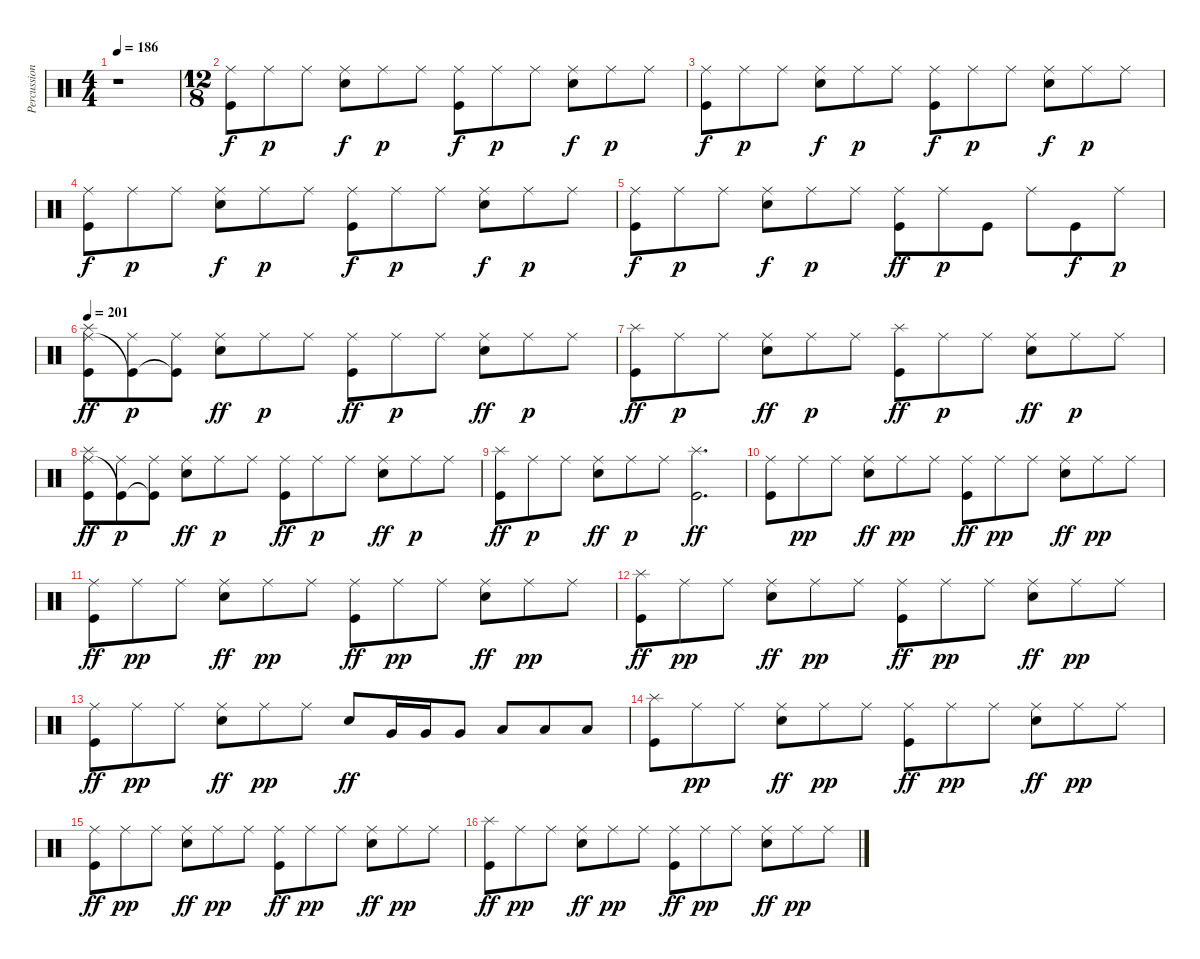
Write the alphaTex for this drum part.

\track ("Percussion" "Percussion") {instrument percussion}
\staff {score}
\articulation defaults
\ts (4 4)
\tempo 186
\clef neutral
\ks c
r.1{dy f} |
\ts (12 8)
("Ride (middle)" "Kick (hit)").8 "Ride (middle)".8{dy p} "Ride (middle)".8 ("Ride (middle)" "Snare (hit) 2").8{dy f} "Ride (middle)".8{dy p} "Ride (middle)".8 ("Ride (middle)" "Kick (hit)").8{dy f} "Ride (middle)".8{dy p} "Ride (middle)".8 ("Ride (middle)" "Snare (hit) 2").8{dy f} "Ride (middle)".8{dy p} "Ride (middle)".8 |
("Ride (middle)" "Kick (hit)").8{dy f} "Ride (middle)".8{dy p} "Ride (middle)".8 ("Ride (middle)" "Snare (hit) 2").8{dy f} "Ride (middle)".8{dy p} "Ride (middle)".8 ("Ride (middle)" "Kick (hit)").8{dy f} "Ride (middle)".8{dy p} "Ride (middle)".8 ("Ride (middle)" "Snare (hit) 2").8{dy f} "Ride (middle)".8{dy p} "Ride (middle)".8 |
("Ride (middle)" "Kick (hit)").8{dy f} "Ride (middle)".8{dy p} "Ride (middle)".8 ("Ride (middle)" "Snare (hit) 2").8{dy f} "Ride (middle)".8{dy p} "Ride (middle)".8 ("Ride (middle)" "Kick (hit)").8{dy f} "Ride (middle)".8{dy p} "Ride (middle)".8 ("Ride (middle)" "Snare (hit) 2").8{dy f} "Ride (middle)".8{dy p} "Ride (middle)".8 |
("Ride (middle)" "Kick (hit)").8{dy f} "Ride (middle)".8{dy p} "Ride (middle)".8 ("Ride (middle)" "Snare (hit) 2").8{dy f} "Ride (middle)".8{dy p} "Ride (middle)".8 ("Ride (middle)" "Kick (hit)").8{dy ff} "Ride (middle)".8{dy p} "Kick (hit)".8 "Ride (middle)".8 "Kick (hit)".8{dy f} "Ride (middle)".8{dy p} |
\tempo 201
("Ride (middle)" "Kick (hit)" "Splash (hit)").8{dy ff} ("Kick (hit)"{t} "Ride (middle)").8{dy p} ("Kick (hit)"{t} "Ride (middle)").8 ("Ride (middle)" "Snare (hit) 2").8{dy ff} "Ride (middle)".8{dy p} "Ride (middle)".8 ("Ride (middle)" "Kick (hit)").8{dy ff} "Ride (middle)".8{dy p} "Ride (middle)".8 ("Ride (middle)" "Snare (hit) 2").8{dy ff} "Ride (middle)".8{dy p} "Ride (middle)".8 |
("Splash (hit)" "Kick (hit)").8{dy ff} "Ride (middle)".8{dy p} "Ride (middle)".8 ("Ride (middle)" "Snare (hit) 2").8{dy ff} "Ride (middle)".8{dy p} "Ride (middle)".8 ("Splash (hit)" "Kick (hit)").8{dy ff} "Ride (middle)".8{dy p} "Ride (middle)".8 ("Ride (middle)" "Snare (hit) 2").8{dy ff} "Ride (middle)".8{dy p} "Ride (middle)".8 |
("Ride (middle)" "Kick (hit)" "Splash (hit)").8{dy ff} ("Kick (hit)"{t} "Ride (middle)").8{dy p} ("Kick (hit)"{t} "Ride (middle)").8 ("Ride (middle)" "Snare (hit) 2").8{dy ff} "Ride (middle)".8{dy p} "Ride (middle)".8 ("Ride (middle)" "Kick (hit)").8{dy ff} "Ride (middle)".8{dy p} "Ride (middle)".8 ("Ride (middle)" "Snare (hit) 2").8{dy ff} "Ride (middle)".8{dy p} "Ride (middle)".8 |
("Splash (hit)" "Kick (hit)").8{dy ff} "Ride (middle)".8{dy p} "Ride (middle)".8 ("Ride (middle)" "Snare (hit) 2").8{dy ff} "Ride (middle)".8{dy p} "Ride (middle)".8 ("Splash (hit)" "Kick (hit)").2{d dy ff} |
("Ride (middle)" "Kick (hit)").8 "Ride (middle)".8{dy pp} "Ride (middle)".8 ("Ride (middle)" "Snare (hit) 2").8{dy ff} "Ride (middle)".8{dy pp} "Ride (middle)".8 ("Ride (middle)" "Kick (hit)").8{dy ff} "Ride (middle)".8{dy pp} "Ride (middle)".8 ("Ride (middle)" "Snare (hit) 2").8{dy ff} "Ride (middle)".8{dy pp} "Ride (middle)".8 |
("Ride (middle)" "Kick (hit)").8{dy ff} "Ride (middle)".8{dy pp} "Ride (middle)".8 ("Ride (middle)" "Snare (hit) 2").8{dy ff} "Ride (middle)".8{dy pp} "Ride (middle)".8 ("Ride (middle)" "Kick (hit)").8{dy ff} "Ride (middle)".8{dy pp} "Ride (middle)".8 ("Ride (middle)" "Snare (hit) 2").8{dy ff} "Ride (middle)".8{dy pp} "Ride (middle)".8 |
("Splash (hit)" "Kick (hit)").8{dy ff} "Ride (middle)".8{dy pp} "Ride (middle)".8 ("Ride (middle)" "Snare (hit) 2").8{dy ff} "Ride (middle)".8{dy pp} "Ride (middle)".8 ("Ride (middle)" "Kick (hit)").8{dy ff} "Ride (middle)".8{dy pp} "Ride (middle)".8 ("Ride (middle)" "Snare (hit) 2").8{dy ff} "Ride (middle)".8{dy pp} "Ride (middle)".8 |
("Ride (middle)" "Kick (hit)").8{dy ff} "Ride (middle)".8{dy pp} "Ride (middle)".8 ("Ride (middle)" "Snare (hit) 2").8{dy ff} "Ride (middle)".8{dy pp} "Ride (middle)".8 "Snare (hit) 2".8{dy ff} "Very Low Tom (hit)".16 "Very Low Tom (hit)".16 "Very Low Tom (hit)".8 "Low Floor Tom (hit)".8 "Low Floor Tom (hit)".8 "Low Floor Tom (hit)".8 |
("Splash (hit)" "Kick (hit)").8 "Ride (middle)".8{dy pp} "Ride (middle)".8 ("Ride (middle)" "Snare (hit) 2").8{dy ff} "Ride (middle)".8{dy pp} "Ride (middle)".8 ("Ride (middle)" "Kick (hit)").8{dy ff} "Ride (middle)".8{dy pp} "Ride (middle)".8 ("Ride (middle)" "Snare (hit) 2").8{dy ff} "Ride (middle)".8{dy pp} "Ride (middle)".8 |
("Ride (middle)" "Kick (hit)").8{dy ff} "Ride (middle)".8{dy pp} "Ride (middle)".8 ("Ride (middle)" "Snare (hit) 2").8{dy ff} "Ride (middle)".8{dy pp} "Ride (middle)".8 ("Ride (middle)" "Kick (hit)").8{dy ff} "Ride (middle)".8{dy pp} "Ride (middle)".8 ("Ride (middle)" "Snare (hit) 2").8{dy ff} "Ride (middle)".8{dy pp} "Ride (middle)".8 |
("Splash (hit)" "Kick (hit)").8{dy ff} "Ride (middle)".8{dy pp} "Ride (middle)".8 ("Ride (middle)" "Snare (hit) 2").8{dy ff} "Ride (middle)".8{dy pp} "Ride (middle)".8 ("Ride (middle)" "Kick (hit)").8{dy ff} "Ride (middle)".8{dy pp} "Ride (middle)".8 ("Ride (middle)" "Snare (hit) 2").8{dy ff} "Ride (middle)".8{dy pp} "Ride (middle)".8
